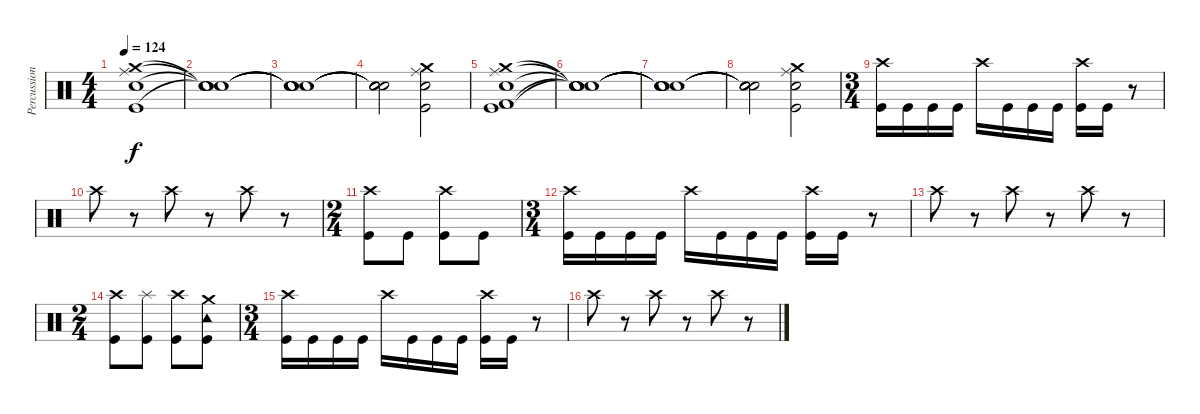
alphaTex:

\track ("Percussion" "Percussion") {instrument percussion}
\staff {score}
\articulation defaults
\ts (4 4)
\tempo 124
\clef neutral
\ks c
("Crash medium (hit)" "Ride (middle)" "Electric Snare (hit)" "Kick (hit)").1{dy f} |
("Snare (hit)"{t} "Snare (hit)"{t} "Snare (hit)"{t} "Snare (hit)"{t}).1 |
("Snare (hit)"{t} "Snare (hit)"{t} "Snare (hit)"{t} "Snare (hit)"{t}).1 |
("Snare (hit)"{t} "Snare (hit)"{t} "Snare (hit)"{t} "Snare (hit)"{t}).2 ("Crash medium (hit)" "Ride (middle)" "Electric Snare (hit)" "Kick (hit)").2 |
("Kick (hit) 2" "Crash medium (hit)" "Ride (middle)" "Electric Snare (hit)" "Kick (hit)").1 |
("Snare (hit)"{t} "Snare (hit)"{t} "Snare (hit)"{t} "Snare (hit)"{t} "Snare (hit)"{t}).1 |
("Snare (hit)"{t} "Snare (hit)"{t} "Snare (hit)"{t} "Snare (hit)"{t} "Snare (hit)"{t}).1 |
("Snare (hit)"{t} "Snare (hit)"{t} "Snare (hit)"{t} "Snare (hit)"{t}).2 ("Crash medium (hit)" "Ride (middle)" "Electric Snare (hit)" "Kick (hit)").2 |
\ts (3 4)
("Crash high (hit)" "Kick (hit)").16 "Kick (hit)".16 "Kick (hit)".16 "Kick (hit)".16 "Crash high (hit)".16 "Kick (hit)".16 "Kick (hit)".16 "Kick (hit)".16 ("Crash high (hit)" "Kick (hit)").16 "Kick (hit)".16 r.8 |
"Crash high (hit)".8 r.8 "Crash high (hit)".8 r.8 "Crash high (hit)".8 r.8 |
\ts (2 4)
("Crash high (hit)" "Kick (hit)").8 "Kick (hit)".8 ("Crash high (hit)" "Kick (hit)").8 "Kick (hit)".8 |
\ts (3 4)
("Crash high (hit)" "Kick (hit)").16 "Kick (hit)".16 "Kick (hit)".16 "Kick (hit)".16 "Crash high (hit)".16 "Kick (hit)".16 "Kick (hit)".16 "Kick (hit)".16 ("Crash high (hit)" "Kick (hit)").16 "Kick (hit)".16 r.8 |
"Crash high (hit)".8 r.8 "Crash high (hit)".8 r.8 "Crash high (hit)".8 r.8 |
\ts (2 4)
("Crash high (hit)" "Kick (hit)").8 ("Splash (hit)" "Kick (hit)").8 ("Crash high (hit)" "Kick (hit)").8 ("Tambourine (hit)" "Crash medium (hit)" "Kick (hit)").8 |
\ts (3 4)
("Crash high (hit)" "Kick (hit)").16 "Kick (hit)".16 "Kick (hit)".16 "Kick (hit)".16 "Crash high (hit)".16 "Kick (hit)".16 "Kick (hit)".16 "Kick (hit)".16 ("Crash high (hit)" "Kick (hit)").16 "Kick (hit)".16 r.8 |
"Crash high (hit)".8 r.8 "Crash high (hit)".8 r.8 "Crash high (hit)".8 r.8
